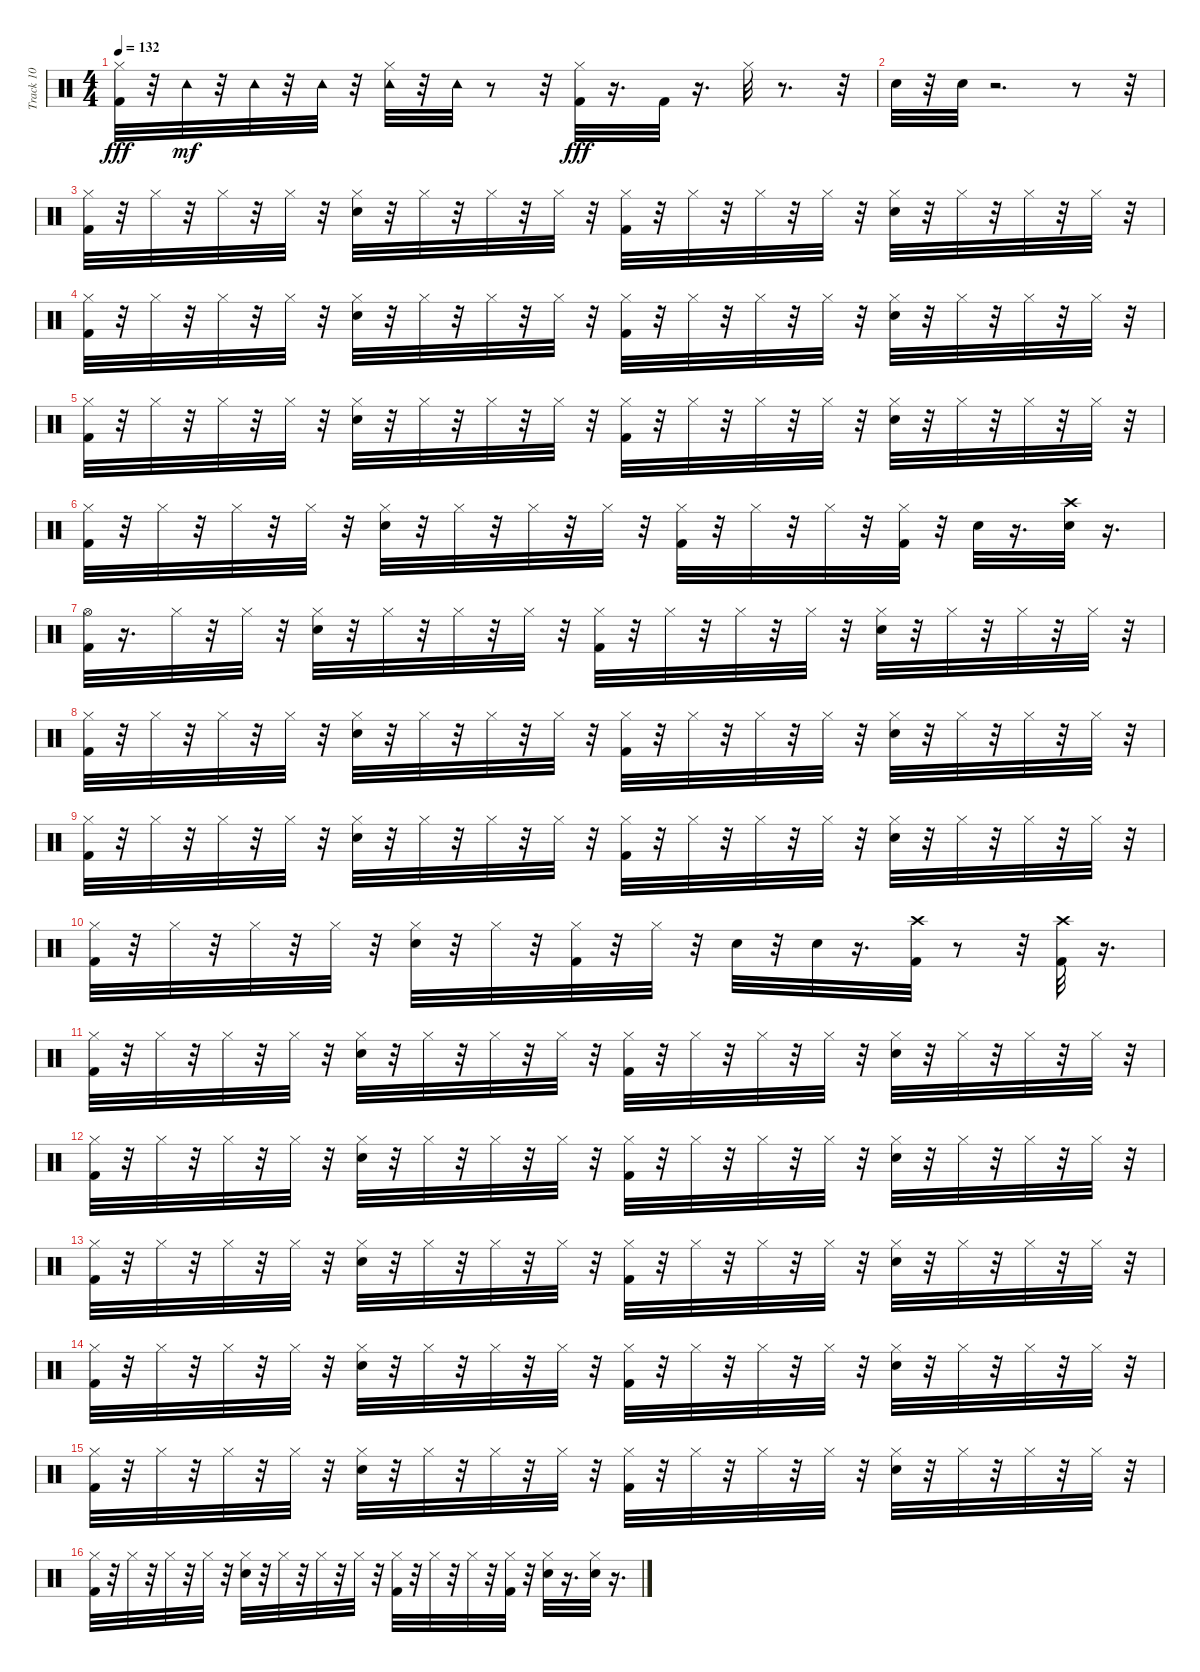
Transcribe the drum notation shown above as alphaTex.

\track ("Track 10" "Track 10") {instrument percussion}
\staff {score}
\articulation defaults
\ts (4 4)
\tempo 132
\clef neutral
\ks c
("Hi-Hat (closed)" "Kick (hit) 2").32{dy fff} r.32 "Tambourine (hit)".32{dy mf} r.32 "Tambourine (hit)".32 r.32 "Tambourine (hit)".32 r.32 ("Hi-Hat (closed)" "Tambourine (hit)").32 r.32 "Tambourine (hit)".32 r.8 r.32 ("Hi-Hat (closed)" "Kick (hit) 2").32{dy fff} r.16{d} "Kick (hit) 2".32 r.16{d} "Hi-Hat (closed)".32 r.8{d} r.32 |
"Snare (hit) 2".32 r.32 "Snare (hit) 2".32 r.2{d} r.8 r.32 |
("Kick (hit) 2" "Hi-Hat (closed)").32 r.32 "Hi-Hat (closed)".32 r.32 "Hi-Hat (closed)".32 r.32 "Hi-Hat (closed)".32 r.32 ("Snare (hit) 2" "Hi-Hat (closed)").32 r.32 "Hi-Hat (closed)".32 r.32 "Hi-Hat (closed)".32 r.32 "Hi-Hat (closed)".32 r.32 ("Kick (hit) 2" "Hi-Hat (closed)").32 r.32 "Hi-Hat (closed)".32 r.32 "Hi-Hat (closed)".32 r.32 "Hi-Hat (closed)".32 r.32 ("Snare (hit) 2" "Hi-Hat (closed)").32 r.32 "Hi-Hat (closed)".32 r.32 "Hi-Hat (closed)".32 r.32 "Hi-Hat (closed)".32 r.32 |
("Kick (hit) 2" "Hi-Hat (closed)").32 r.32 "Hi-Hat (closed)".32 r.32 "Hi-Hat (closed)".32 r.32 "Hi-Hat (closed)".32 r.32 ("Snare (hit) 2" "Hi-Hat (closed)").32 r.32 "Hi-Hat (closed)".32 r.32 "Hi-Hat (closed)".32 r.32 "Hi-Hat (closed)".32 r.32 ("Kick (hit) 2" "Hi-Hat (closed)").32 r.32 "Hi-Hat (closed)".32 r.32 "Hi-Hat (closed)".32 r.32 "Hi-Hat (closed)".32 r.32 ("Snare (hit) 2" "Hi-Hat (closed)").32 r.32 "Hi-Hat (closed)".32 r.32 "Hi-Hat (closed)".32 r.32 "Hi-Hat (closed)".32 r.32 |
("Kick (hit) 2" "Hi-Hat (closed)").32 r.32 "Hi-Hat (closed)".32 r.32 "Hi-Hat (closed)".32 r.32 "Hi-Hat (closed)".32 r.32 ("Snare (hit) 2" "Hi-Hat (closed)").32 r.32 "Hi-Hat (closed)".32 r.32 "Hi-Hat (closed)".32 r.32 "Hi-Hat (closed)".32 r.32 ("Kick (hit) 2" "Hi-Hat (closed)").32 r.32 "Hi-Hat (closed)".32 r.32 "Hi-Hat (closed)".32 r.32 "Hi-Hat (closed)".32 r.32 ("Snare (hit) 2" "Hi-Hat (closed)").32 r.32 "Hi-Hat (closed)".32 r.32 "Hi-Hat (closed)".32 r.32 "Hi-Hat (closed)".32 r.32 |
("Kick (hit) 2" "Hi-Hat (closed)").32 r.32 "Hi-Hat (closed)".32 r.32 "Hi-Hat (closed)".32 r.32 "Hi-Hat (closed)".32 r.32 ("Snare (hit) 2" "Hi-Hat (closed)").32 r.32 "Hi-Hat (closed)".32 r.32 "Hi-Hat (closed)".32 r.32 "Hi-Hat (closed)".32 r.32 ("Kick (hit) 2" "Hi-Hat (closed)").32 r.32 "Hi-Hat (closed)".32 r.32 "Hi-Hat (closed)".32 r.32 ("Kick (hit) 2" "Hi-Hat (closed)").32 r.32 "Snare (hit) 2".32 r.16{d} ("Crash high (hit)" "Snare (hit) 2").32 r.16{d} |
("Hi-Hat (open)" "Kick (hit) 2").32 r.16{d} "Hi-Hat (closed)".32 r.32 "Hi-Hat (closed)".32 r.32 ("Snare (hit) 2" "Hi-Hat (closed)").32 r.32 "Hi-Hat (closed)".32 r.32 "Hi-Hat (closed)".32 r.32 "Hi-Hat (closed)".32 r.32 ("Kick (hit) 2" "Hi-Hat (closed)").32 r.32 "Hi-Hat (closed)".32 r.32 "Hi-Hat (closed)".32 r.32 "Hi-Hat (closed)".32 r.32 ("Snare (hit) 2" "Hi-Hat (closed)").32 r.32 "Hi-Hat (closed)".32 r.32 "Hi-Hat (closed)".32 r.32 "Hi-Hat (closed)".32 r.32 |
("Kick (hit) 2" "Hi-Hat (closed)").32 r.32 "Hi-Hat (closed)".32 r.32 "Hi-Hat (closed)".32 r.32 "Hi-Hat (closed)".32 r.32 ("Snare (hit) 2" "Hi-Hat (closed)").32 r.32 "Hi-Hat (closed)".32 r.32 "Hi-Hat (closed)".32 r.32 "Hi-Hat (closed)".32 r.32 ("Kick (hit) 2" "Hi-Hat (closed)").32 r.32 "Hi-Hat (closed)".32 r.32 "Hi-Hat (closed)".32 r.32 "Hi-Hat (closed)".32 r.32 ("Snare (hit) 2" "Hi-Hat (closed)").32 r.32 "Hi-Hat (closed)".32 r.32 "Hi-Hat (closed)".32 r.32 "Hi-Hat (closed)".32 r.32 |
("Kick (hit) 2" "Hi-Hat (closed)").32 r.32 "Hi-Hat (closed)".32 r.32 "Hi-Hat (closed)".32 r.32 "Hi-Hat (closed)".32 r.32 ("Snare (hit) 2" "Hi-Hat (closed)").32 r.32 "Hi-Hat (closed)".32 r.32 "Hi-Hat (closed)".32 r.32 "Hi-Hat (closed)".32 r.32 ("Kick (hit) 2" "Hi-Hat (closed)").32 r.32 "Hi-Hat (closed)".32 r.32 "Hi-Hat (closed)".32 r.32 "Hi-Hat (closed)".32 r.32 ("Snare (hit) 2" "Hi-Hat (closed)").32 r.32 "Hi-Hat (closed)".32 r.32 "Hi-Hat (closed)".32 r.32 "Hi-Hat (closed)".32 r.32 |
("Kick (hit) 2" "Hi-Hat (closed)").32 r.32 "Hi-Hat (closed)".32 r.32 "Hi-Hat (closed)".32 r.32 "Hi-Hat (closed)".32 r.32 ("Snare (hit) 2" "Hi-Hat (closed)").32 r.32 "Hi-Hat (closed)".32 r.32 ("Kick (hit) 2" "Hi-Hat (closed)").32 r.32 "Hi-Hat (closed)".32 r.32 "Snare (hit) 2".32 r.32 "Snare (hit) 2".32 r.16{d} ("Kick (hit) 2" "Crash high (hit)").32 r.8 r.32 ("Kick (hit) 2" "Crash high (hit)").32 r.16{d} |
("Kick (hit) 2" "Hi-Hat (closed)").32 r.32 "Hi-Hat (closed)".32 r.32 "Hi-Hat (closed)".32 r.32 "Hi-Hat (closed)".32 r.32 ("Snare (hit) 2" "Hi-Hat (closed)").32 r.32 "Hi-Hat (closed)".32 r.32 "Hi-Hat (closed)".32 r.32 "Hi-Hat (closed)".32 r.32 ("Kick (hit) 2" "Hi-Hat (closed)").32 r.32 "Hi-Hat (closed)".32 r.32 "Hi-Hat (closed)".32 r.32 "Hi-Hat (closed)".32 r.32 ("Snare (hit) 2" "Hi-Hat (closed)").32 r.32 "Hi-Hat (closed)".32 r.32 "Hi-Hat (closed)".32 r.32 "Hi-Hat (closed)".32 r.32 |
("Kick (hit) 2" "Hi-Hat (closed)").32 r.32 "Hi-Hat (closed)".32 r.32 "Hi-Hat (closed)".32 r.32 "Hi-Hat (closed)".32 r.32 ("Snare (hit) 2" "Hi-Hat (closed)").32 r.32 "Hi-Hat (closed)".32 r.32 "Hi-Hat (closed)".32 r.32 "Hi-Hat (closed)".32 r.32 ("Kick (hit) 2" "Hi-Hat (closed)").32 r.32 "Hi-Hat (closed)".32 r.32 "Hi-Hat (closed)".32 r.32 "Hi-Hat (closed)".32 r.32 ("Snare (hit) 2" "Hi-Hat (closed)").32 r.32 "Hi-Hat (closed)".32 r.32 "Hi-Hat (closed)".32 r.32 "Hi-Hat (closed)".32 r.32 |
("Kick (hit) 2" "Hi-Hat (closed)").32 r.32 "Hi-Hat (closed)".32 r.32 "Hi-Hat (closed)".32 r.32 "Hi-Hat (closed)".32 r.32 ("Snare (hit) 2" "Hi-Hat (closed)").32 r.32 "Hi-Hat (closed)".32 r.32 "Hi-Hat (closed)".32 r.32 "Hi-Hat (closed)".32 r.32 ("Kick (hit) 2" "Hi-Hat (closed)").32 r.32 "Hi-Hat (closed)".32 r.32 "Hi-Hat (closed)".32 r.32 "Hi-Hat (closed)".32 r.32 ("Snare (hit) 2" "Hi-Hat (closed)").32 r.32 "Hi-Hat (closed)".32 r.32 "Hi-Hat (closed)".32 r.32 "Hi-Hat (closed)".32 r.32 |
("Kick (hit) 2" "Hi-Hat (closed)").32 r.32 "Hi-Hat (closed)".32 r.32 "Hi-Hat (closed)".32 r.32 "Hi-Hat (closed)".32 r.32 ("Snare (hit) 2" "Hi-Hat (closed)").32 r.32 "Hi-Hat (closed)".32 r.32 "Hi-Hat (closed)".32 r.32 "Hi-Hat (closed)".32 r.32 ("Kick (hit) 2" "Hi-Hat (closed)").32 r.32 "Hi-Hat (closed)".32 r.32 "Hi-Hat (closed)".32 r.32 "Hi-Hat (closed)".32 r.32 ("Hi-Hat (closed)" "Snare (hit) 2").32 r.32 "Hi-Hat (closed)".32 r.32 "Hi-Hat (closed)".32 r.32 "Hi-Hat (closed)".32 r.32 |
("Kick (hit) 2" "Hi-Hat (closed)").32 r.32 "Hi-Hat (closed)".32 r.32 "Hi-Hat (closed)".32 r.32 "Hi-Hat (closed)".32 r.32 ("Snare (hit) 2" "Hi-Hat (closed)").32 r.32 "Hi-Hat (closed)".32 r.32 "Hi-Hat (closed)".32 r.32 "Hi-Hat (closed)".32 r.32 ("Kick (hit) 2" "Hi-Hat (closed)").32 r.32 "Hi-Hat (closed)".32 r.32 "Hi-Hat (closed)".32 r.32 "Hi-Hat (closed)".32 r.32 ("Snare (hit) 2" "Hi-Hat (closed)").32 r.32 "Hi-Hat (closed)".32 r.32 "Hi-Hat (closed)".32 r.32 "Hi-Hat (closed)".32 r.32 |
("Kick (hit) 2" "Hi-Hat (closed)").32 r.32 "Hi-Hat (closed)".32 r.32 "Hi-Hat (closed)".32 r.32 "Hi-Hat (closed)".32 r.32 ("Snare (hit) 2" "Hi-Hat (closed)").32 r.32 "Hi-Hat (closed)".32 r.32 "Hi-Hat (closed)".32 r.32 "Hi-Hat (closed)".32 r.32 ("Kick (hit) 2" "Hi-Hat (closed)").32 r.32 "Hi-Hat (closed)".32 r.32 "Hi-Hat (closed)".32 r.32 ("Kick (hit) 2" "Hi-Hat (closed)").32 r.32 ("Snare (hit) 2" "Hi-Hat (closed)").32 r.16{d} ("Snare (hit) 2" "Hi-Hat (closed)").32 r.16{d}
